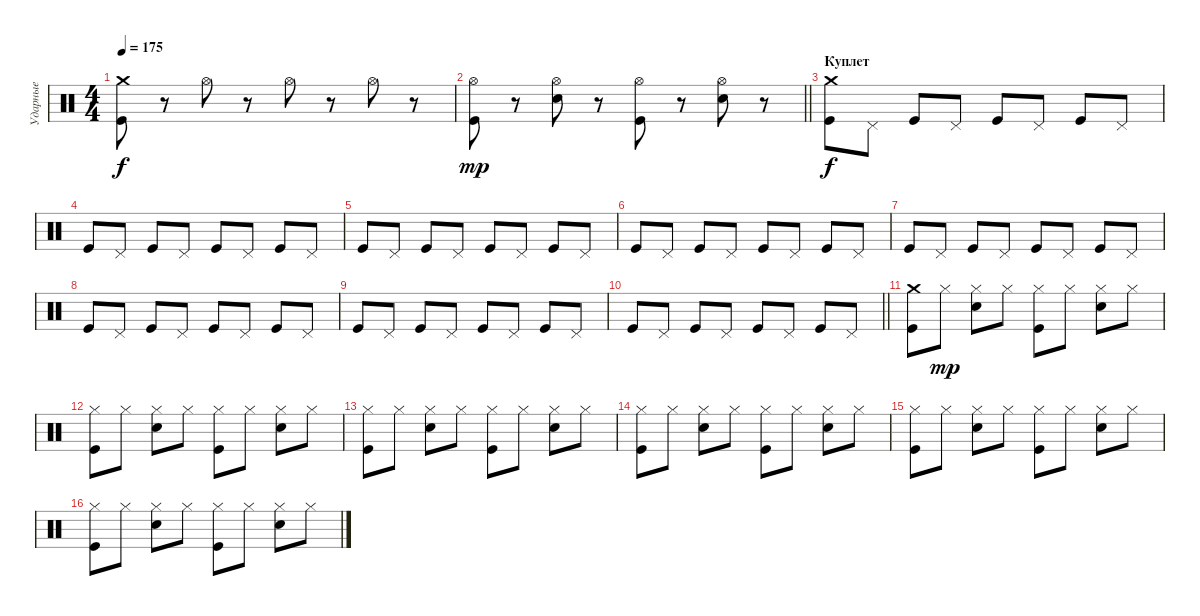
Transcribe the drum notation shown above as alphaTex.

\track ("Ударные" "Ударные") {instrument percussion}
\staff {score}
\articulation defaults
\ts (4 4)
\tempo 175
\clef neutral
\ks c
("Crash medium (hit)" "Kick (hit)").8{dy f} r.8 "Hi-Hat (open)".8 r.8 "Hi-Hat (open)".8 r.8 "Hi-Hat (open)".8 r.8 |
\barLineRight lightlight
("Hi-Hat (open)" "Kick (hit)").8{dy mp} r.8 ("Hi-Hat (open)" "Electric Snare (hit)").8 r.8 ("Hi-Hat (open)" "Kick (hit)").8 r.8 ("Hi-Hat (open)" "Electric Snare (hit)").8 r.8 |
\section ("" "Куплет")
("Crash medium (hit)" "Kick (hit)").8{dy f} "Pedal Hi-Hat (hit)".8 "Kick (hit)".8 "Pedal Hi-Hat (hit)".8 "Kick (hit)".8 "Pedal Hi-Hat (hit)".8 "Kick (hit)".8 "Pedal Hi-Hat (hit)".8 |
"Kick (hit)".8 "Pedal Hi-Hat (hit)".8 "Kick (hit)".8 "Pedal Hi-Hat (hit)".8 "Kick (hit)".8 "Pedal Hi-Hat (hit)".8 "Kick (hit)".8 "Pedal Hi-Hat (hit)".8 |
"Kick (hit)".8 "Pedal Hi-Hat (hit)".8 "Kick (hit)".8 "Pedal Hi-Hat (hit)".8 "Kick (hit)".8 "Pedal Hi-Hat (hit)".8 "Kick (hit)".8 "Pedal Hi-Hat (hit)".8 |
"Kick (hit)".8 "Pedal Hi-Hat (hit)".8 "Kick (hit)".8 "Pedal Hi-Hat (hit)".8 "Kick (hit)".8 "Pedal Hi-Hat (hit)".8 "Kick (hit)".8 "Pedal Hi-Hat (hit)".8 |
"Kick (hit)".8 "Pedal Hi-Hat (hit)".8 "Kick (hit)".8 "Pedal Hi-Hat (hit)".8 "Kick (hit)".8 "Pedal Hi-Hat (hit)".8 "Kick (hit)".8 "Pedal Hi-Hat (hit)".8 |
"Kick (hit)".8 "Pedal Hi-Hat (hit)".8 "Kick (hit)".8 "Pedal Hi-Hat (hit)".8 "Kick (hit)".8 "Pedal Hi-Hat (hit)".8 "Kick (hit)".8 "Pedal Hi-Hat (hit)".8 |
"Kick (hit)".8 "Pedal Hi-Hat (hit)".8 "Kick (hit)".8 "Pedal Hi-Hat (hit)".8 "Kick (hit)".8 "Pedal Hi-Hat (hit)".8 "Kick (hit)".8 "Pedal Hi-Hat (hit)".8 |
\barLineRight lightlight "Kick (hit)".8 "Pedal Hi-Hat (hit)".8 "Kick (hit)".8 "Pedal Hi-Hat (hit)".8 "Kick (hit)".8 "Pedal Hi-Hat (hit)".8 "Kick (hit)".8 "Pedal Hi-Hat (hit)".8
|
\section ("" " ")
("Crash medium (hit)" "Kick (hit)").8 "Hi-Hat (closed)".8{dy mp} ("Hi-Hat (closed)" "Electric Snare (hit)").8 "Hi-Hat (closed)".8 ("Hi-Hat (closed)" "Kick (hit)").8 "Hi-Hat (closed)".8 ("Hi-Hat (closed)" "Electric Snare (hit)").8 "Hi-Hat (closed)".8 |
("Hi-Hat (closed)" "Kick (hit)").8 "Hi-Hat (closed)".8 ("Hi-Hat (closed)" "Electric Snare (hit)").8 "Hi-Hat (closed)".8 ("Hi-Hat (closed)" "Kick (hit)").8 "Hi-Hat (closed)".8 ("Hi-Hat (closed)" "Electric Snare (hit)").8 "Hi-Hat (closed)".8 |
("Hi-Hat (closed)" "Kick (hit)").8 "Hi-Hat (closed)".8 ("Hi-Hat (closed)" "Electric Snare (hit)").8 "Hi-Hat (closed)".8 ("Hi-Hat (closed)" "Kick (hit)").8 "Hi-Hat (closed)".8 ("Hi-Hat (closed)" "Electric Snare (hit)").8 "Hi-Hat (closed)".8 |
("Hi-Hat (closed)" "Kick (hit)").8 "Hi-Hat (closed)".8 ("Hi-Hat (closed)" "Electric Snare (hit)").8 "Hi-Hat (closed)".8 ("Hi-Hat (closed)" "Kick (hit)").8 "Hi-Hat (closed)".8 ("Hi-Hat (closed)" "Electric Snare (hit)").8 "Hi-Hat (closed)".8 |
("Hi-Hat (closed)" "Kick (hit)").8 "Hi-Hat (closed)".8 ("Hi-Hat (closed)" "Electric Snare (hit)").8 "Hi-Hat (closed)".8 ("Hi-Hat (closed)" "Kick (hit)").8 "Hi-Hat (closed)".8 ("Hi-Hat (closed)" "Electric Snare (hit)").8 "Hi-Hat (closed)".8 |
("Hi-Hat (closed)" "Kick (hit)").8 "Hi-Hat (closed)".8 ("Hi-Hat (closed)" "Electric Snare (hit)").8 "Hi-Hat (closed)".8 ("Hi-Hat (closed)" "Kick (hit)").8 "Hi-Hat (closed)".8 ("Hi-Hat (closed)" "Electric Snare (hit)").8 "Hi-Hat (closed)".8
